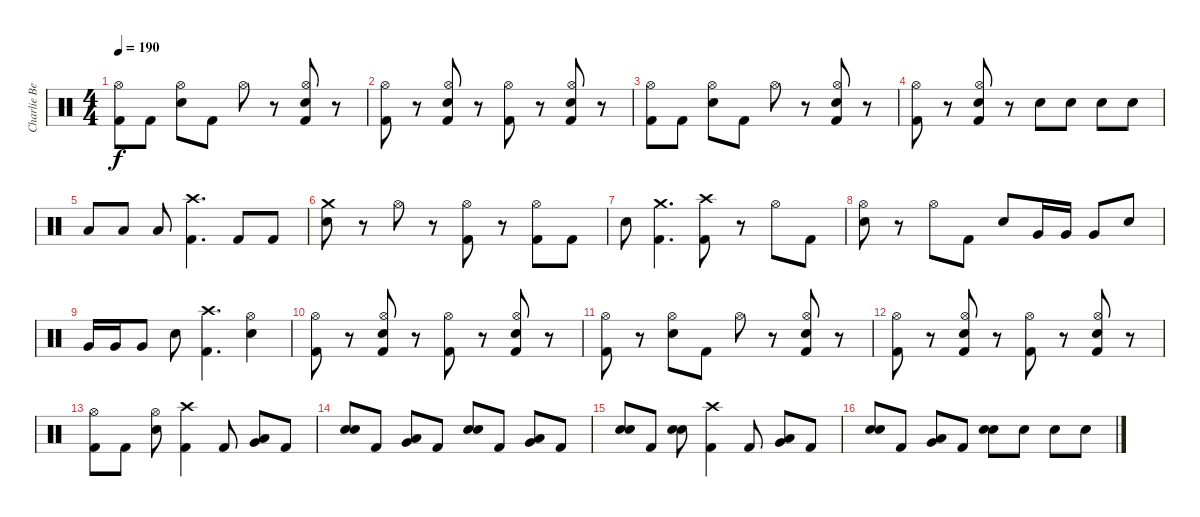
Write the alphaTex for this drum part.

\track ("Charlie Benante" "Charlie Be") {instrument percussion}
\staff {score}
\articulation defaults
\ts (4 4)
\tempo 190
\clef neutral
\ks c
("Kick (hit) 2" "Hi-Hat (open)").8{dy f} "Kick (hit) 2".8 ("Snare (hit) 2" "Hi-Hat (open)").8 "Kick (hit) 2".8 "Hi-Hat (open)".8 r.8 ("Kick (hit) 2" "Snare (hit) 2" "Hi-Hat (open)").8 r.8 |
("Kick (hit) 2" "Hi-Hat (open)").8 r.8 ("Kick (hit) 2" "Snare (hit) 2" "Hi-Hat (open)").8 r.8 ("Kick (hit) 2" "Hi-Hat (open)").8 r.8 ("Kick (hit) 2" "Snare (hit) 2" "Hi-Hat (open)").8 r.8 |
("Kick (hit) 2" "Hi-Hat (open)").8 "Kick (hit) 2".8 ("Snare (hit) 2" "Hi-Hat (open)").8 "Kick (hit) 2".8 "Hi-Hat (open)".8 r.8 ("Kick (hit) 2" "Snare (hit) 2" "Hi-Hat (open)").8 r.8 |
("Kick (hit) 2" "Hi-Hat (open)").8 r.8 ("Kick (hit) 2" "Snare (hit) 2" "Hi-Hat (open)").8 r.8 "Snare (hit) 2".8 "Snare (hit) 2".8 "Snare (hit) 2".8 "Snare (hit) 2".8 |
"Low Tom (hit)".8 "Low Tom (hit)".8 "Low Tom (hit)".8 ("Kick (hit) 2" "Crash high (hit)").4{d} "Kick (hit) 2".8 "Kick (hit) 2".8 |
("Snare (hit) 2" "Crash medium (hit)").8 r.8 "Hi-Hat (open)".8 r.8 ("Kick (hit) 2" "Hi-Hat (open)").8 r.8 ("Kick (hit) 2" "Hi-Hat (open)").8 "Kick (hit) 2".8 |
"Snare (hit) 2".8 ("Kick (hit) 2" "Crash medium (hit)").4{d} ("Kick (hit) 2" "Crash high (hit)").8 r.8 "Hi-Hat (open)".8 "Kick (hit) 2".8 |
("Snare (hit) 2" "Hi-Hat (open)").8 r.8 "Hi-Hat (open)".8 "Kick (hit) 2".8 "Snare (hit) 2".8 "Very Low Tom (hit)".16 "Very Low Tom (hit)".16 "Very Low Tom (hit)".8 "Snare (hit) 2".8 |
"Very Low Tom (hit)".16 "Very Low Tom (hit)".16 "Very Low Tom (hit)".8 "Snare (hit) 2".8 ("Kick (hit) 2" "Crash high (hit)").4{d} ("Snare (hit) 2" "Hi-Hat (open)").4 |
("Kick (hit) 2" "Hi-Hat (open)").8 r.8 ("Kick (hit) 2" "Snare (hit) 2" "Hi-Hat (open)").8 r.8 ("Kick (hit) 2" "Hi-Hat (open)").8 r.8 ("Kick (hit) 2" "Snare (hit) 2" "Hi-Hat (open)").8 r.8 |
("Kick (hit) 2" "Hi-Hat (open)").8 r.8 ("Snare (hit) 2" "Hi-Hat (open)").8 "Kick (hit) 2".8 "Hi-Hat (open)".8 r.8 ("Kick (hit) 2" "Snare (hit) 2" "Hi-Hat (open)").8 r.8 |
("Kick (hit) 2" "Hi-Hat (open)").8 r.8 ("Kick (hit) 2" "Snare (hit) 2" "Hi-Hat (open)").8 r.8 ("Kick (hit) 2" "Hi-Hat (open)").8 r.8 ("Kick (hit) 2" "Snare (hit) 2" "Hi-Hat (open)").8 r.8 |
("Kick (hit) 2" "Hi-Hat (open)").8 "Kick (hit) 2".8 ("Snare (hit) 2" "Hi-Hat (open)").8 ("Kick (hit) 2" "Crash high (hit)").4 "Kick (hit) 2".8 ("Very Low Tom (hit)" "Low Floor Tom (hit)").8{bd 120} "Kick (hit) 2".8 |
("Snare (hit) 2" "Snare (hit) 2").8{bd 120} "Kick (hit) 2".8 ("Very Low Tom (hit)" "Low Floor Tom (hit)").8{bd 120} "Kick (hit) 2".8 ("Snare (hit) 2" "Snare (hit) 2").8{bd 120} "Kick (hit) 2".8 ("Very Low Tom (hit)" "Low Floor Tom (hit)").8{bd 120} "Kick (hit) 2".8 |
("Snare (hit) 2" "Snare (hit) 2").8{bd 120} "Kick (hit) 2".8 ("Snare (hit) 2" "Snare (hit) 2").8{bd 120} ("Kick (hit) 2" "Crash high (hit)").4 "Kick (hit) 2".8 ("Very Low Tom (hit)" "Low Floor Tom (hit)").8{bd 120} "Kick (hit) 2".8 |
("Snare (hit) 2" "Snare (hit) 2").8{bd 120} "Kick (hit) 2".8 ("Very Low Tom (hit)" "Low Floor Tom (hit)").8{bd 120} "Kick (hit) 2".8 ("Snare (hit) 2" "Snare (hit) 2").8{bd 120} "Snare (hit) 2".8 "Snare (hit) 2".8 "Snare (hit) 2".8
